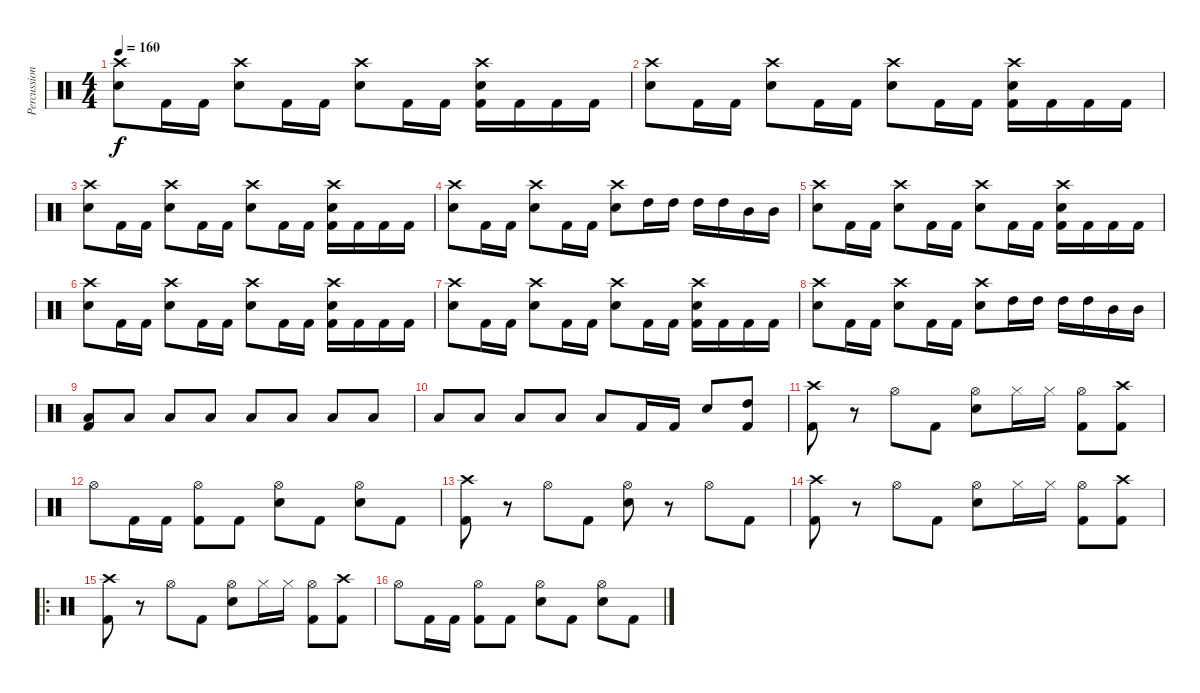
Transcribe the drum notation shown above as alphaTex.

\track ("Percussion" "Percussion") {instrument percussion}
\staff {score}
\articulation defaults
\ts (4 4)
\tempo 160
\clef neutral
\ks c
("Crash high (hit)" "Electric Snare (hit)").8{dy f} "Kick (hit) 2".16 "Kick (hit) 2".16 ("Crash high (hit)" "Electric Snare (hit)").8 "Kick (hit) 2".16 "Kick (hit) 2".16 ("Crash high (hit)" "Electric Snare (hit)").8 "Kick (hit) 2".16 "Kick (hit) 2".16 ("Crash high (hit)" "Electric Snare (hit)" "Kick (hit) 2").16 "Kick (hit) 2".16 "Kick (hit) 2".16 "Kick (hit) 2".16 |
("Crash high (hit)" "Electric Snare (hit)").8 "Kick (hit) 2".16 "Kick (hit) 2".16 ("Crash high (hit)" "Electric Snare (hit)").8 "Kick (hit) 2".16 "Kick (hit) 2".16 ("Crash high (hit)" "Electric Snare (hit)").8 "Kick (hit) 2".16 "Kick (hit) 2".16 ("Crash high (hit)" "Electric Snare (hit)" "Kick (hit) 2").16 "Kick (hit) 2".16 "Kick (hit) 2".16 "Kick (hit) 2".16 |
("Crash high (hit)" "Electric Snare (hit)").8 "Kick (hit) 2".16 "Kick (hit) 2".16 ("Crash high (hit)" "Electric Snare (hit)").8 "Kick (hit) 2".16 "Kick (hit) 2".16 ("Crash high (hit)" "Electric Snare (hit)").8 "Kick (hit) 2".16 "Kick (hit) 2".16 ("Crash high (hit)" "Electric Snare (hit)" "Kick (hit) 2").16 "Kick (hit) 2".16 "Kick (hit) 2".16 "Kick (hit) 2".16 |
("Crash high (hit)" "Electric Snare (hit)").8 "Kick (hit) 2".16 "Kick (hit) 2".16 ("Crash high (hit)" "Electric Snare (hit)").8 "Kick (hit) 2".16 "Kick (hit) 2".16 ("Crash high (hit)" "Electric Snare (hit)").8 "High Tom (hit)".16 "High Tom (hit)".16 "High Tom (hit)".16 "High Tom (hit)".16 "Mid Tom (hit)".16 "Mid Tom (hit)".16 |
("Crash high (hit)" "Electric Snare (hit)").8 "Kick (hit) 2".16 "Kick (hit) 2".16 ("Crash high (hit)" "Electric Snare (hit)").8 "Kick (hit) 2".16 "Kick (hit) 2".16 ("Crash high (hit)" "Electric Snare (hit)").8 "Kick (hit) 2".16 "Kick (hit) 2".16 ("Crash high (hit)" "Electric Snare (hit)" "Kick (hit) 2").16 "Kick (hit) 2".16 "Kick (hit) 2".16 "Kick (hit) 2".16 |
("Crash high (hit)" "Electric Snare (hit)").8 "Kick (hit) 2".16 "Kick (hit) 2".16 ("Crash high (hit)" "Electric Snare (hit)").8 "Kick (hit) 2".16 "Kick (hit) 2".16 ("Crash high (hit)" "Electric Snare (hit)").8 "Kick (hit) 2".16 "Kick (hit) 2".16 ("Crash high (hit)" "Electric Snare (hit)" "Kick (hit) 2").16 "Kick (hit) 2".16 "Kick (hit) 2".16 "Kick (hit) 2".16 |
("Crash high (hit)" "Electric Snare (hit)").8 "Kick (hit) 2".16 "Kick (hit) 2".16 ("Crash high (hit)" "Electric Snare (hit)").8 "Kick (hit) 2".16 "Kick (hit) 2".16 ("Crash high (hit)" "Electric Snare (hit)").8 "Kick (hit) 2".16 "Kick (hit) 2".16 ("Crash high (hit)" "Electric Snare (hit)" "Kick (hit) 2").16 "Kick (hit) 2".16 "Kick (hit) 2".16 "Kick (hit) 2".16 |
("Crash high (hit)" "Electric Snare (hit)").8 "Kick (hit) 2".16 "Kick (hit) 2".16 ("Crash high (hit)" "Electric Snare (hit)").8 "Kick (hit) 2".16 "Kick (hit) 2".16 ("Crash high (hit)" "Electric Snare (hit)").8 "High Tom (hit)".16 "High Tom (hit)".16 "High Tom (hit)".16 "High Tom (hit)".16 "Mid Tom (hit)".16 "Mid Tom (hit)".16 |
("Low Floor Tom (hit)" "Kick (hit) 2").8 "Low Floor Tom (hit)".8 "Low Floor Tom (hit)".8 "Low Floor Tom (hit)".8 "Low Floor Tom (hit)".8 "Low Floor Tom (hit)".8 "Low Floor Tom (hit)".8 "Low Floor Tom (hit)".8 |
"Low Floor Tom (hit)".8 "Low Floor Tom (hit)".8 "Low Floor Tom (hit)".8 "Low Floor Tom (hit)".8 "Low Floor Tom (hit)".8 "Kick (hit) 2".16 "Kick (hit) 2".16 "Electric Snare (hit)".8 ("High Tom (hit)" "Kick (hit) 2").8 |
("Crash high (hit)" "Kick (hit) 2").8 r.8 "Hi-Hat (open)".8 "Kick (hit) 2".8 ("Hi-Hat (open)" "Electric Snare (hit)").8 "Hi-Hat (closed)".16 "Hi-Hat (closed)".16 ("Hi-Hat (open)" "Kick (hit) 2").8 ("Crash high (hit)" "Kick (hit) 2").8 |
"Hi-Hat (open)".8 "Kick (hit) 2".16 "Kick (hit) 2".16 ("Hi-Hat (open)" "Kick (hit) 2").8 "Kick (hit) 2".8 ("Hi-Hat (open)" "Electric Snare (hit)").8 "Kick (hit) 2".8 ("Hi-Hat (open)" "Electric Snare (hit)").8 "Kick (hit) 2".8 |
("Crash high (hit)" "Kick (hit) 2").8 r.8 "Hi-Hat (open)".8 "Kick (hit) 2".8 ("Hi-Hat (open)" "Electric Snare (hit)").8 r.8 "Hi-Hat (open)".8 "Kick (hit) 2".8 |
("Crash high (hit)" "Kick (hit) 2").8 r.8 "Hi-Hat (open)".8 "Kick (hit) 2".8 ("Hi-Hat (open)" "Electric Snare (hit)").8 "Hi-Hat (closed)".16 "Hi-Hat (closed)".16 ("Hi-Hat (open)" "Kick (hit) 2").8 ("Crash high (hit)" "Kick (hit) 2").8 |
\ro
("Crash high (hit)" "Kick (hit) 2").8 r.8 "Hi-Hat (open)".8 "Kick (hit) 2".8 ("Hi-Hat (open)" "Electric Snare (hit)").8 "Hi-Hat (closed)".16 "Hi-Hat (closed)".16 ("Hi-Hat (open)" "Kick (hit) 2").8 ("Crash high (hit)" "Kick (hit) 2").8 |
"Hi-Hat (open)".8 "Kick (hit) 2".16 "Kick (hit) 2".16 ("Hi-Hat (open)" "Kick (hit) 2").8 "Kick (hit) 2".8 ("Hi-Hat (open)" "Electric Snare (hit)").8 "Kick (hit) 2".8 ("Hi-Hat (open)" "Electric Snare (hit)").8 "Kick (hit) 2".8
